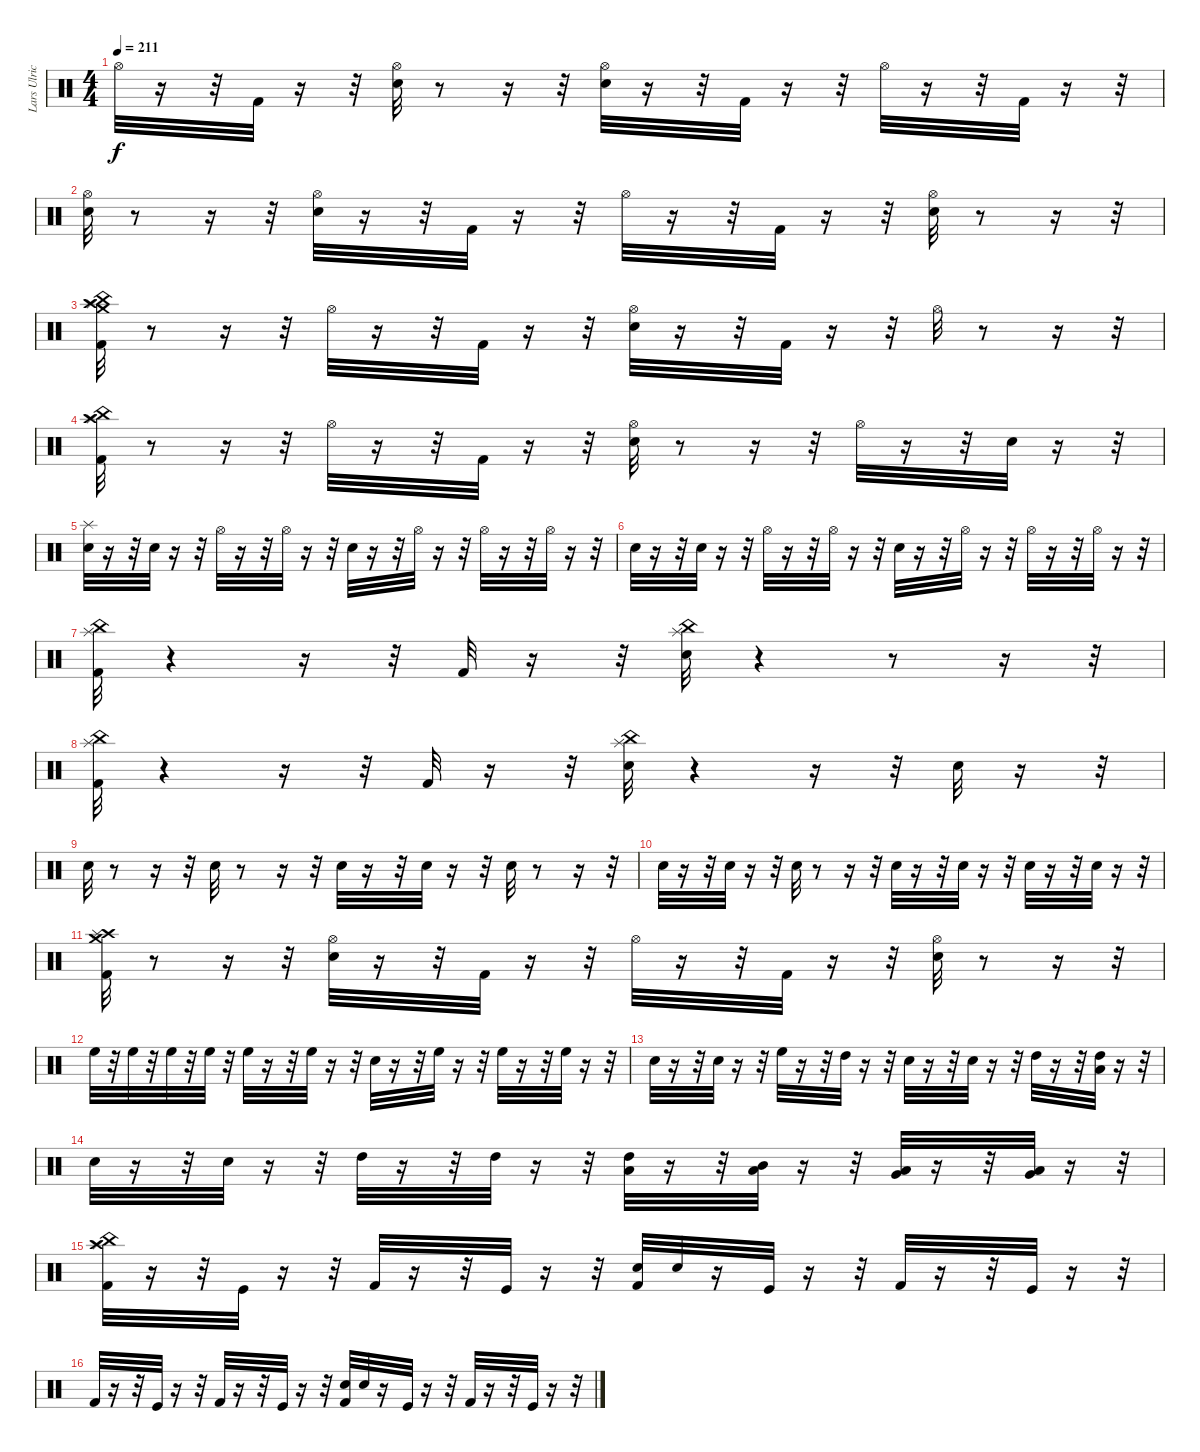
\track ("Lars Ulrich (Drums)" "Lars Ulric") {instrument percussion}
\staff {score}
\articulation defaults
\ts (4 4)
\tempo 211
\clef neutral
\ks c "Hi-Hat (open)".32{dy f}
r.16 r.32 "Kick (hit) 2".32 r.16 r.32 ("Snare (hit) 2" "Hi-Hat (open)").32 r.8 r.16 r.32 ("Hi-Hat (open)" "Snare (hit) 2").32 r.16 r.32 "Kick (hit) 2".32 r.16 r.32 "Hi-Hat (open)".32 r.16 r.32 "Kick (hit) 2".32 r.16 r.32 |
("Snare (hit) 2" "Hi-Hat (open)").32 r.8 r.16 r.32 ("Hi-Hat (open)" "Snare (hit) 2").32 r.16 r.32 "Kick (hit) 2".32 r.16 r.32 "Hi-Hat (open)".32 r.16 r.32 "Kick (hit) 2".32 r.16 r.32 ("Snare (hit) 2" "Hi-Hat (open)").32 r.8 r.16 r.32 |
("China (hit)" "Kick (hit) 2" "Crash high (hit)" "Splash (hit)" "Crash medium (hit)").32 r.8 r.16 r.32 "Hi-Hat (open)".32 r.16 r.32 "Kick (hit) 2".32 r.16 r.32 ("Hi-Hat (open)" "Snare (hit) 2").32 r.16 r.32 "Kick (hit) 2".32 r.16 r.32 "Hi-Hat (open)".32 r.8 r.16 r.32 |
("China (hit)" "Splash (hit)" "Crash high (hit)" "Kick (hit) 2").32 r.8 r.16 r.32 "Hi-Hat (open)".32 r.16 r.32 "Kick (hit) 2".32 r.16 r.32 ("Snare (hit) 2" "Hi-Hat (open)").32 r.8 r.16 r.32 "Hi-Hat (open)".32 r.16 r.32 "Snare (hit) 2".32 r.16 r.32 |
("Snare (hit) 2" "Splash (hit)").32 r.16 r.32 "Snare (hit) 2".32 r.16 r.32 "Hi-Hat (open)".32 r.16 r.32 "Hi-Hat (open)".32 r.16 r.32 "Snare (hit) 2".32 r.16 r.32 "Hi-Hat (open)".32 r.16 r.32 "Hi-Hat (open)".32 r.16 r.32 "Hi-Hat (open)".32 r.16 r.32 |
"Snare (hit) 2".32 r.16 r.32 "Snare (hit) 2".32 r.16 r.32 "Hi-Hat (open)".32 r.16 r.32 "Hi-Hat (open)".32 r.16 r.32 "Snare (hit) 2".32 r.16 r.32 "Hi-Hat (open)".32 r.16 r.32 "Hi-Hat (open)".32 r.16 r.32 "Hi-Hat (open)".32 r.16 r.32 |
("Kick (hit) 2" "China (hit)" "Splash (hit)").32 r.4 r.16 r.32 "Kick (hit) 2".32 r.16 r.32 ("Snare (hit) 2" "China (hit)" "Splash (hit)").32 r.4 r.8 r.16 r.32 |
("Kick (hit) 2" "China (hit)" "Splash (hit)").32 r.4 r.16 r.32 "Kick (hit) 2".32 r.16 r.32 ("Snare (hit) 2" "China (hit)" "Splash (hit)").32 r.4 r.16 r.32 "Snare (hit) 2".32 r.16 r.32 |
"Snare (hit) 2".32 r.8 r.16 r.32 "Snare (hit) 2".32 r.8 r.16 r.32 "Snare (hit) 2".32 r.16 r.32 "Snare (hit) 2".32 r.16 r.32 "Snare (hit) 2".32 r.8 r.16 r.32 |
"Snare (hit) 2".32 r.16 r.32 "Snare (hit) 2".32 r.16 r.32 "Snare (hit) 2".32 r.8 r.16 r.32 "Snare (hit) 2".32 r.16 r.32 "Snare (hit) 2".32 r.16 r.32 "Snare (hit) 2".32 r.16 r.32 "Snare (hit) 2".32 r.16 r.32 |
("Kick (hit) 2" "Crash high (hit)" "Crash medium (hit)" "Splash (hit)").32 r.8 r.16 r.32 ("Snare (hit) 2" "Hi-Hat (open)").32 r.16 r.32 "Kick (hit) 2".32 r.16 r.32 "Hi-Hat (open)".32 r.16 r.32 "Kick (hit) 2".32 r.16 r.32 ("Snare (hit) 2" "Hi-Hat (open)").32 r.8 r.16 r.32 |
"High Floor Tom (hit)".32 r.32 "High Floor Tom (hit)".32 r.32 "High Floor Tom (hit)".32 r.32 "High Floor Tom (hit)".32 r.32 "High Floor Tom (hit)".32 r.16 r.32 "High Floor Tom (hit)".32 r.16 r.32 "Snare (hit) 2".32 r.16 r.32 "High Floor Tom (hit)".32 r.16 r.32 "High Floor Tom (hit)".32 r.16 r.32 "High Floor Tom (hit)".32 r.16 r.32 |
"Snare (hit) 2".32 r.16 r.32 "Snare (hit) 2".32 r.16 r.32 "High Floor Tom (hit)".32 r.16 r.32 "High Tom (hit)".32 r.16 r.32 "Snare (hit) 2".32 r.16 r.32 "Snare (hit) 2".32 r.16 r.32 "High Tom (hit)".32 r.16 r.32 ("Low Tom (hit)" "High Tom (hit)").32 r.16 r.32 |
"Snare (hit) 2".32 r.16 r.32 "Snare (hit) 2".32 r.16 r.32 "High Tom (hit)".32 r.16 r.32 "High Tom (hit)".32 r.16 r.32 ("Low Tom (hit)" "High Tom (hit)").32 r.16 r.32 ("Low Tom (hit)" "Mid Tom (hit)").32 r.16 r.32 ("Low Tom (hit)" "Very Low Tom (hit)").32 r.16 r.32 ("Low Floor Tom (hit)" "Very Low Tom (hit)").32 r.16 r.32 |
("China (hit)" "Crash high (hit)" "Splash (hit)" "Kick (hit) 2").32 r.16 r.32 "Kick (hit)".32 r.16 r.32 "Kick (hit) 2".32 r.16 r.32 "Kick (hit)".32 r.16 r.32 ("Snare (hit) 2" "Kick (hit) 2").32 "Snare (hit) 2".32 r.16 "Kick (hit)".32 r.16 r.32 "Kick (hit) 2".32 r.16 r.32 "Kick (hit)".32 r.16 r.32 |
"Kick (hit) 2".32 r.16 r.32 "Kick (hit)".32 r.16 r.32 "Kick (hit) 2".32 r.16 r.32 "Kick (hit)".32 r.16 r.32 ("Snare (hit) 2" "Kick (hit) 2").32 "Snare (hit) 2".32 r.16 "Kick (hit)".32 r.16 r.32 "Kick (hit) 2".32 r.16 r.32 "Kick (hit)".32 r.16 r.32
